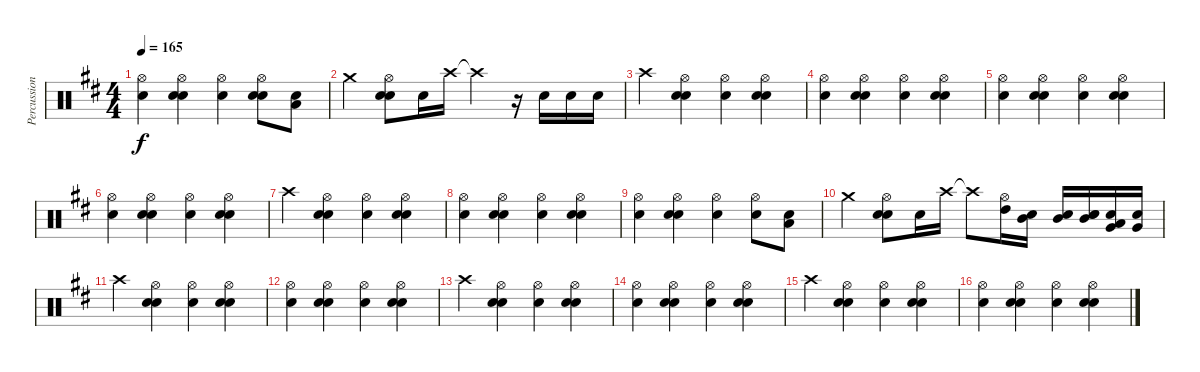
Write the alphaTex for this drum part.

\track ("Percussion" "Percussion") {instrument percussion}
\staff {score}
\articulation defaults
\ts (4 4)
\tempo 165
\clef neutral
\ks d
("Hi-Hat (open)" "Snare (hit) 2").4{dy f} ("Hi-Hat (open)" "Snare (hit) 2" "Electric Snare (hit)").4 ("Hi-Hat (open)" "Snare (hit) 2").4 ("Hi-Hat (open)" "Snare (hit) 2" "Electric Snare (hit)").8 ("Snare (hit) 2" "Low Floor Tom (hit)").8 |
"Crash medium (hit)".4 ("Hi-Hat (open)" "Snare (hit) 2" "Electric Snare (hit)").8 "Snare (hit) 2".16 "Crash high (hit)".16 "Crash high (hit)"{t}.4 r.16 "Snare (hit) 2".16 "Snare (hit) 2".16 "Snare (hit) 2".16 |
"Crash high (hit)".4 ("Hi-Hat (open)" "Snare (hit) 2" "Electric Snare (hit)").4 ("Hi-Hat (open)" "Snare (hit) 2").4 ("Hi-Hat (open)" "Snare (hit) 2" "Electric Snare (hit)").4 |
("Hi-Hat (open)" "Snare (hit) 2").4 ("Hi-Hat (open)" "Snare (hit) 2" "Electric Snare (hit)").4 ("Hi-Hat (open)" "Snare (hit) 2").4 ("Hi-Hat (open)" "Snare (hit) 2" "Electric Snare (hit)").4 |
("Hi-Hat (open)" "Snare (hit) 2").4 ("Hi-Hat (open)" "Snare (hit) 2" "Electric Snare (hit)").4 ("Hi-Hat (open)" "Snare (hit) 2").4 ("Hi-Hat (open)" "Snare (hit) 2" "Electric Snare (hit)").4 |
("Hi-Hat (open)" "Snare (hit) 2").4 ("Hi-Hat (open)" "Snare (hit) 2" "Electric Snare (hit)").4 ("Hi-Hat (open)" "Snare (hit) 2").4 ("Hi-Hat (open)" "Snare (hit) 2" "Electric Snare (hit)").4 |
"Crash high (hit)".4 ("Hi-Hat (open)" "Snare (hit) 2" "Electric Snare (hit)").4 ("Hi-Hat (open)" "Snare (hit) 2").4 ("Hi-Hat (open)" "Snare (hit) 2" "Electric Snare (hit)").4 |
("Hi-Hat (open)" "Snare (hit) 2").4 ("Hi-Hat (open)" "Snare (hit) 2" "Electric Snare (hit)").4 ("Hi-Hat (open)" "Snare (hit) 2").4 ("Hi-Hat (open)" "Snare (hit) 2" "Electric Snare (hit)").4 |
("Hi-Hat (open)" "Snare (hit) 2").4 ("Hi-Hat (open)" "Snare (hit) 2" "Electric Snare (hit)").4 ("Hi-Hat (open)" "Snare (hit) 2").4 ("Hi-Hat (open)" "Snare (hit) 2").8 ("Snare (hit) 2" "Low Floor Tom (hit)").8 |
"Crash medium (hit)".4 ("Hi-Hat (open)" "Snare (hit) 2" "Electric Snare (hit)").8 "Snare (hit) 2".16 "Crash high (hit)".16 "Crash high (hit)"{t}.8 ("Hi-Hat (open)" "High Tom (hit)").16 ("Snare (hit) 2" "Mid Tom (hit)").16 ("Snare (hit) 2" "Mid Tom (hit)").16 ("Snare (hit) 2" "Mid Tom (hit)" "Snare (hit) 2").16 ("Low Tom (hit)" "Very Low Tom (hit)" "Snare (hit) 2").16 ("Very Low Tom (hit)" "Snare (hit) 2").16 |
"Crash high (hit)".4 ("Hi-Hat (open)" "Snare (hit) 2" "Electric Snare (hit)").4 ("Hi-Hat (open)" "Snare (hit) 2").4 ("Hi-Hat (open)" "Snare (hit) 2" "Electric Snare (hit)").4 |
("Hi-Hat (open)" "Snare (hit) 2").4 ("Hi-Hat (open)" "Snare (hit) 2" "Electric Snare (hit)").4 ("Hi-Hat (open)" "Snare (hit) 2").4 ("Hi-Hat (open)" "Snare (hit) 2" "Electric Snare (hit)").4 |
"Crash high (hit)".4 ("Hi-Hat (open)" "Snare (hit) 2" "Electric Snare (hit)").4 ("Hi-Hat (open)" "Snare (hit) 2").4 ("Hi-Hat (open)" "Snare (hit) 2" "Electric Snare (hit)").4 |
("Hi-Hat (open)" "Snare (hit) 2").4 ("Hi-Hat (open)" "Snare (hit) 2" "Electric Snare (hit)").4 ("Hi-Hat (open)" "Snare (hit) 2").4 ("Hi-Hat (open)" "Snare (hit) 2" "Electric Snare (hit)").4 |
"Crash high (hit)".4 ("Hi-Hat (open)" "Snare (hit) 2" "Electric Snare (hit)").4 ("Hi-Hat (open)" "Snare (hit) 2").4 ("Hi-Hat (open)" "Snare (hit) 2" "Electric Snare (hit)").4 |
("Hi-Hat (open)" "Snare (hit) 2").4 ("Hi-Hat (open)" "Snare (hit) 2" "Electric Snare (hit)").4 ("Hi-Hat (open)" "Snare (hit) 2").4 ("Hi-Hat (open)" "Snare (hit) 2" "Electric Snare (hit)").4
